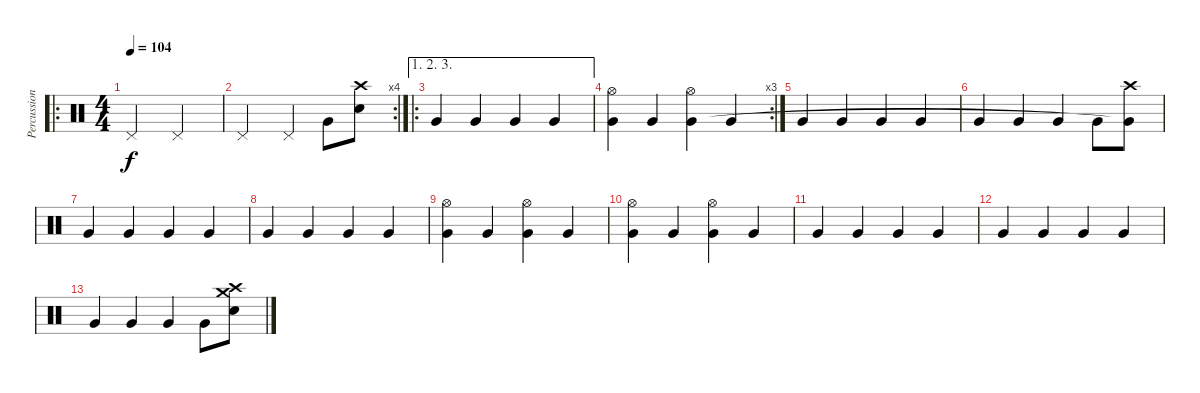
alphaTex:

\track ("Percussion" "Percussion") {instrument percussion}
\staff {score}
\articulation defaults
\ro
\ts (4 4)
\tempo 104
\clef neutral
\ks c "Pedal Hi-Hat (hit)".2{dy f} "Pedal Hi-Hat (hit)".2
|
\rc 4 "Pedal Hi-Hat (hit)".2 "Pedal Hi-Hat (hit)".4 "Very Low Tom (hit)".8
("Crash high (hit)" "Snare (hit)"{t}).8 |
\ae (1 2 3)
\ro "Very Low Tom (hit)".4 "Very Low Tom (hit)".4 "Very Low Tom (hit)".4 "Very Low Tom (hit)".4
|
\rc 3
("Hi-Hat (open)" "Very Low Tom (hit)").4 "Very Low Tom (hit)".4 ("Hi-Hat (open)" "Very Low Tom (hit)").4 "Very Low Tom (hit)".4 |
"Very Low Tom (hit)".4 "Very Low Tom (hit)".4 "Very Low Tom (hit)".4 "Very Low Tom (hit)".4 |
"Very Low Tom (hit)".4 "Very Low Tom (hit)".4 "Very Low Tom (hit)".4 "Very Low Tom (hit)".8 ("Crash high (hit)" "Very Low Tom (hit)"{t}).8 |
"Very Low Tom (hit)".4 "Very Low Tom (hit)".4 "Very Low Tom (hit)".4 "Very Low Tom (hit)".4 |
"Very Low Tom (hit)".4 "Very Low Tom (hit)".4 "Very Low Tom (hit)".4 "Very Low Tom (hit)".4 |
("Hi-Hat (open)" "Very Low Tom (hit)").4 "Very Low Tom (hit)".4 ("Hi-Hat (open)" "Very Low Tom (hit)").4 "Very Low Tom (hit)".4 |
("Hi-Hat (open)" "Very Low Tom (hit)").4 "Very Low Tom (hit)".4 ("Hi-Hat (open)" "Very Low Tom (hit)").4 "Very Low Tom (hit)".4 |
"Very Low Tom (hit)".4 "Very Low Tom (hit)".4 "Very Low Tom (hit)".4 "Very Low Tom (hit)".4 |
"Very Low Tom (hit)".4 "Very Low Tom (hit)".4 "Very Low Tom (hit)".4 "Very Low Tom (hit)".4 |
"Very Low Tom (hit)".4 "Very Low Tom (hit)".4 "Very Low Tom (hit)".4 "Very Low Tom (hit)".8 ("Crash medium (hit)" "Crash high (hit)" "Snare (hit)").8
